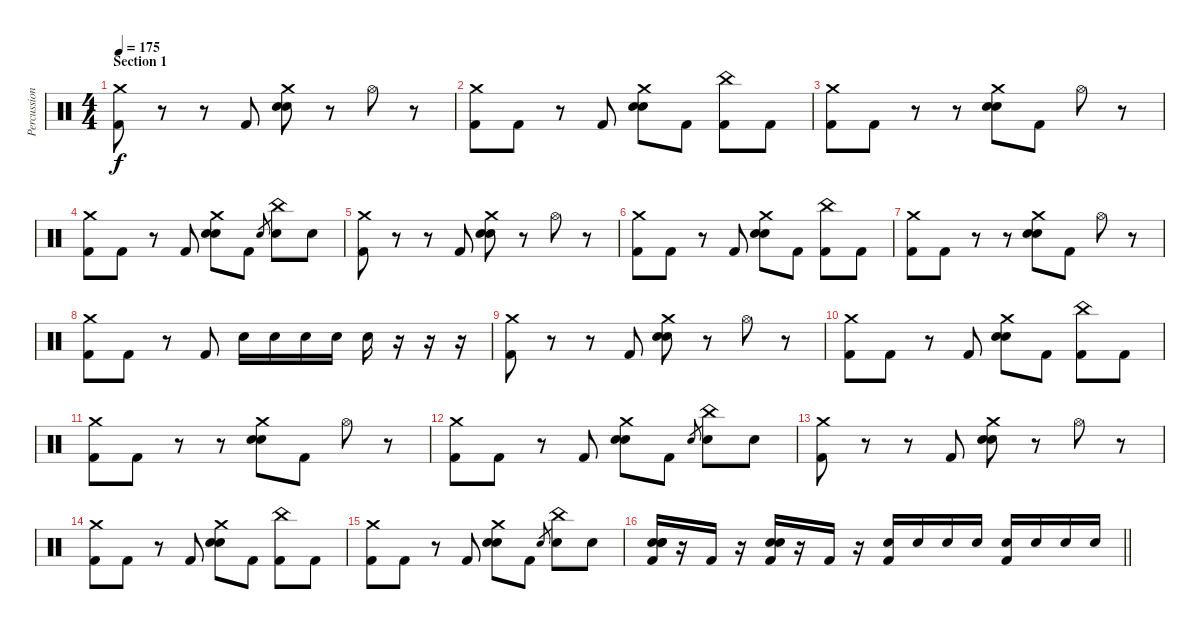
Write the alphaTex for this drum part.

\track ("Percussion" "Percussion") {instrument percussion}
\staff {score}
\articulation defaults
\ts (4 4)
\section ("" "Section 1")
\tempo 175
\clef neutral
\ks c
("Crash medium (hit)" "Kick (hit) 2").8{dy f} r.8 r.8 "Kick (hit) 2".8 ("Crash medium (hit)" "Snare (hit) 2" "Electric Snare (hit)").8 r.8 "Hi-Hat (open)".8 r.8 |
("Crash medium (hit)" "Kick (hit) 2").8 "Kick (hit) 2".8 r.8 "Kick (hit) 2".8 ("Crash medium (hit)" "Snare (hit) 2" "Electric Snare (hit)").8 "Kick (hit) 2".8 ("China (hit)" "Kick (hit) 2").8 "Kick (hit) 2".8 |
("Crash medium (hit)" "Kick (hit) 2").8 "Kick (hit) 2".8 r.8 r.8 ("Crash medium (hit)" "Snare (hit) 2" "Electric Snare (hit)").8 "Kick (hit) 2".8 "Hi-Hat (open)".8 r.8 |
("Crash medium (hit)" "Kick (hit) 2").8 "Kick (hit) 2".8 r.8 "Kick (hit) 2".8 ("Crash medium (hit)" "Snare (hit) 2" "Electric Snare (hit)").8 "Kick (hit) 2".8 "Electric Snare (hit)".8{gr} ("China (hit)" "Electric Snare (hit)").8 "Electric Snare (hit)".8 |
("Crash medium (hit)" "Kick (hit) 2").8 r.8 r.8 "Kick (hit) 2".8 ("Crash medium (hit)" "Snare (hit) 2" "Electric Snare (hit)").8 r.8 "Hi-Hat (open)".8 r.8 |
("Crash medium (hit)" "Kick (hit) 2").8 "Kick (hit) 2".8 r.8 "Kick (hit) 2".8 ("Crash medium (hit)" "Snare (hit) 2" "Electric Snare (hit)").8 "Kick (hit) 2".8 ("China (hit)" "Kick (hit) 2").8 "Kick (hit) 2".8 |
("Crash medium (hit)" "Kick (hit) 2").8 "Kick (hit) 2".8 r.8 r.8 ("Crash medium (hit)" "Snare (hit) 2" "Electric Snare (hit)").8 "Kick (hit) 2".8 "Hi-Hat (open)".8 r.8 |
("Crash medium (hit)" "Kick (hit) 2").8 "Kick (hit) 2".8 r.8 "Kick (hit) 2".8 "Electric Snare (hit)".16 "Electric Snare (hit)".16 "Electric Snare (hit)".16 "Electric Snare (hit)".16 "Electric Snare (hit)".16 r.16 r.16 r.16 |
("Crash medium (hit)" "Kick (hit) 2").8 r.8 r.8 "Kick (hit) 2".8 ("Crash medium (hit)" "Snare (hit) 2" "Electric Snare (hit)").8 r.8 "Hi-Hat (open)".8 r.8 |
("Crash medium (hit)" "Kick (hit) 2").8 "Kick (hit) 2".8 r.8 "Kick (hit) 2".8 ("Crash medium (hit)" "Snare (hit) 2" "Electric Snare (hit)").8 "Kick (hit) 2".8 ("China (hit)" "Kick (hit) 2").8 "Kick (hit) 2".8 |
("Crash medium (hit)" "Kick (hit) 2").8 "Kick (hit) 2".8 r.8 r.8 ("Crash medium (hit)" "Snare (hit) 2" "Electric Snare (hit)").8 "Kick (hit) 2".8 "Hi-Hat (open)".8 r.8 |
("Crash medium (hit)" "Kick (hit) 2").8 "Kick (hit) 2".8 r.8 "Kick (hit) 2".8 ("Crash medium (hit)" "Snare (hit) 2" "Electric Snare (hit)").8 "Kick (hit) 2".8 "Electric Snare (hit)".8{gr} ("China (hit)" "Electric Snare (hit)").8 "Electric Snare (hit)".8 |
("Crash medium (hit)" "Kick (hit) 2").8 r.8 r.8 "Kick (hit) 2".8 ("Crash medium (hit)" "Snare (hit) 2" "Electric Snare (hit)").8 r.8 "Hi-Hat (open)".8 r.8 |
("Crash medium (hit)" "Kick (hit) 2").8 "Kick (hit) 2".8 r.8 "Kick (hit) 2".8 ("Crash medium (hit)" "Snare (hit) 2" "Electric Snare (hit)").8 "Kick (hit) 2".8 ("China (hit)" "Kick (hit) 2").8 "Kick (hit) 2".8 |
("Crash medium (hit)" "Kick (hit) 2").8 "Kick (hit) 2".8 r.8 "Kick (hit) 2".8 ("Crash medium (hit)" "Snare (hit) 2" "Electric Snare (hit)").8 "Kick (hit) 2".8 "Electric Snare (hit)".8{gr} ("China (hit)" "Electric Snare (hit)").8 "Electric Snare (hit)".8 |
\barLineRight lightlight
("Snare (hit)" "Kick (hit) 2" "Electric Snare (hit)" "Electric Snare (hit)").16{bd 60} r.16 "Kick (hit) 2".16 r.16 ("Kick (hit) 2" "Electric Snare (hit)" "Electric Snare (hit)").16{bd 60} r.16 "Kick (hit) 2".16 r.16 ("Kick (hit) 2" "Electric Snare (hit)").16 "Electric Snare (hit)".16 "Electric Snare (hit)".16 "Electric Snare (hit)".16 ("Kick (hit) 2" "Electric Snare (hit)").16 "Electric Snare (hit)".16 "Electric Snare (hit)".16 "Electric Snare (hit)".16
